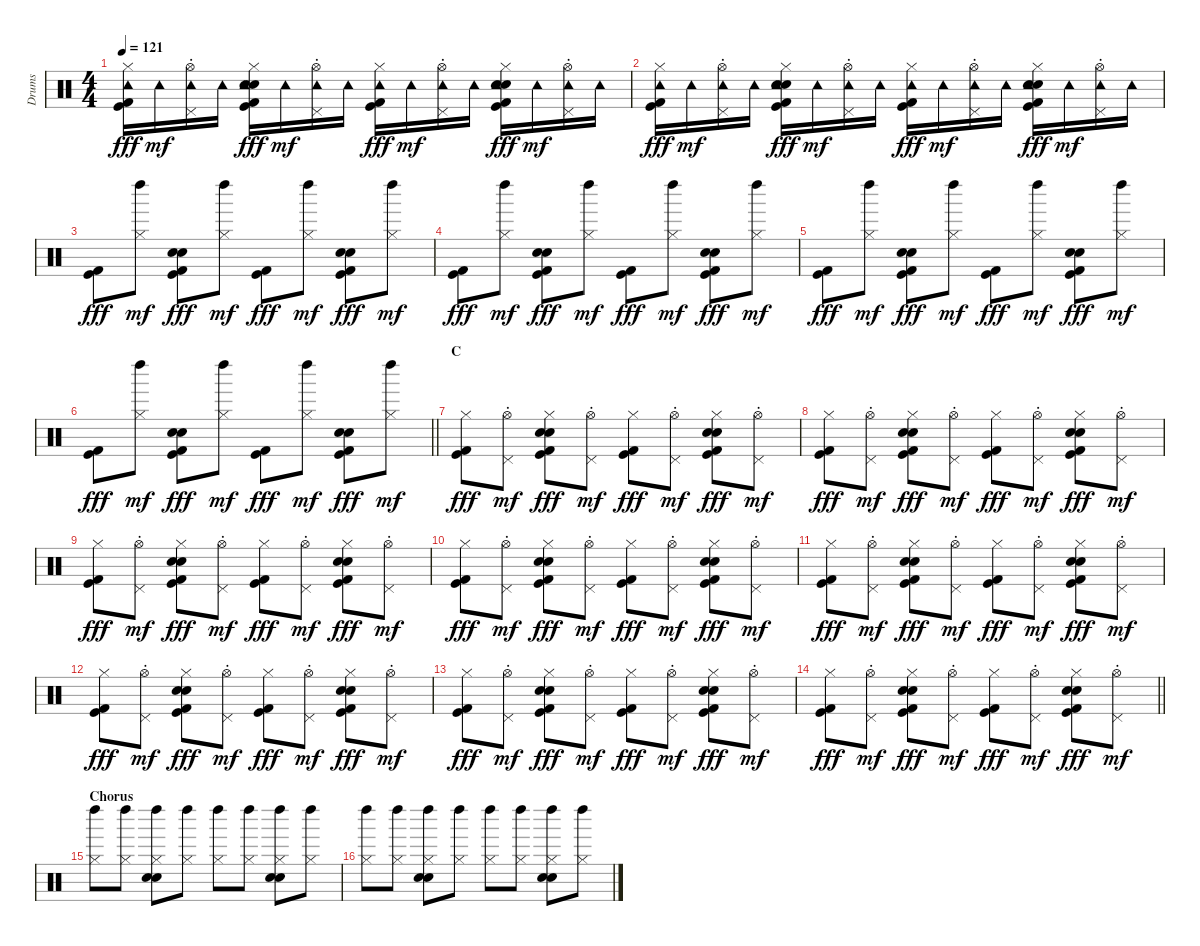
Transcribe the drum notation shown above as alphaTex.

\track ("Drums" "Drums") {instrument percussion}
\staff {score}
\articulation defaults
\ts (4 4)
\tempo 121
\clef neutral
\ks c
("Hi-Hat (closed)" "Tambourine (hit)" "Kick (hit)" "Kick (hit) 2").16{dy fff} "Tambourine (hit)".16{dy mf} ("Pedal Hi-Hat (hit)"{st} "Hi-Hat (open)"{st} "Tambourine (hit)").16 "Tambourine (hit)".16 ("Hand Clap (hit)" "Hi-Hat (closed)" "Tambourine (hit)" "Snare (hit) 2" "Kick (hit)" "Kick (hit) 2").16{dy fff} "Tambourine (hit)".16{dy mf} ("Pedal Hi-Hat (hit)"{st} "Hi-Hat (open)"{st} "Tambourine (hit)").16 "Tambourine (hit)".16 ("Hi-Hat (closed)" "Tambourine (hit)" "Kick (hit)" "Kick (hit) 2").16{dy fff} "Tambourine (hit)".16{dy mf} ("Pedal Hi-Hat (hit)"{st} "Hi-Hat (open)"{st} "Tambourine (hit)").16 "Tambourine (hit)".16 ("Hand Clap (hit)" "Hi-Hat (closed)" "Tambourine (hit)" "Snare (hit) 2" "Kick (hit)" "Kick (hit) 2").16{dy fff} "Tambourine (hit)".16{dy mf} ("Pedal Hi-Hat (hit)"{st} "Hi-Hat (open)"{st} "Tambourine (hit)").16 "Tambourine (hit)".16 |
("Hi-Hat (closed)" "Tambourine (hit)" "Kick (hit)" "Kick (hit) 2").16{dy fff} "Tambourine (hit)".16{dy mf} ("Pedal Hi-Hat (hit)"{st} "Hi-Hat (open)"{st} "Tambourine (hit)").16 "Tambourine (hit)".16 ("Hand Clap (hit)" "Hi-Hat (closed)" "Tambourine (hit)" "Snare (hit) 2" "Kick (hit)" "Kick (hit) 2").16{dy fff} "Tambourine (hit)".16{dy mf} ("Pedal Hi-Hat (hit)"{st} "Hi-Hat (open)"{st} "Tambourine (hit)").16 "Tambourine (hit)".16 ("Hi-Hat (closed)" "Tambourine (hit)" "Kick (hit)" "Kick (hit) 2").16{dy fff} "Tambourine (hit)".16{dy mf} ("Pedal Hi-Hat (hit)"{st} "Hi-Hat (open)"{st} "Tambourine (hit)").16 "Tambourine (hit)".16 ("Hand Clap (hit)" "Hi-Hat (closed)" "Tambourine (hit)" "Snare (hit) 2" "Kick (hit)" "Kick (hit) 2").16{dy fff} "Tambourine (hit)".16{dy mf} ("Pedal Hi-Hat (hit)"{st} "Hi-Hat (open)"{st} "Tambourine (hit)").16 "Tambourine (hit)".16 |
("Kick (hit)" "Kick (hit) 2").8{dy fff} ("Left Maraca (hit)" "Hi-Hat (closed)").8{dy mf} ("Hand Clap (hit)" "Snare (hit) 2" "Kick (hit)" "Kick (hit) 2").8{dy fff} ("Left Maraca (hit)" "Hi-Hat (closed)").8{dy mf} ("Kick (hit)" "Kick (hit) 2").8{dy fff} ("Left Maraca (hit)" "Hi-Hat (closed)").8{dy mf} ("Hand Clap (hit)" "Snare (hit) 2" "Kick (hit)" "Kick (hit) 2").8{dy fff} ("Left Maraca (hit)" "Hi-Hat (closed)").8{dy mf} |
("Kick (hit)" "Kick (hit) 2").8{dy fff} ("Left Maraca (hit)" "Hi-Hat (closed)").8{dy mf} ("Hand Clap (hit)" "Snare (hit) 2" "Kick (hit)" "Kick (hit) 2").8{dy fff} ("Left Maraca (hit)" "Hi-Hat (closed)").8{dy mf} ("Kick (hit)" "Kick (hit) 2").8{dy fff} ("Left Maraca (hit)" "Hi-Hat (closed)").8{dy mf} ("Hand Clap (hit)" "Snare (hit) 2" "Kick (hit)" "Kick (hit) 2").8{dy fff} ("Left Maraca (hit)" "Hi-Hat (closed)").8{dy mf} |
("Kick (hit)" "Kick (hit) 2").8{dy fff} ("Left Maraca (hit)" "Hi-Hat (closed)").8{dy mf} ("Hand Clap (hit)" "Snare (hit) 2" "Kick (hit)" "Kick (hit) 2").8{dy fff} ("Left Maraca (hit)" "Hi-Hat (closed)").8{dy mf} ("Kick (hit)" "Kick (hit) 2").8{dy fff} ("Left Maraca (hit)" "Hi-Hat (closed)").8{dy mf} ("Hand Clap (hit)" "Snare (hit) 2" "Kick (hit)" "Kick (hit) 2").8{dy fff} ("Left Maraca (hit)" "Hi-Hat (closed)").8{dy mf} |
\barLineRight lightlight
("Kick (hit)" "Kick (hit) 2").8{dy fff} ("Left Maraca (hit)" "Hi-Hat (closed)").8{dy mf} ("Hand Clap (hit)" "Snare (hit) 2" "Kick (hit)" "Kick (hit) 2").8{dy fff} ("Left Maraca (hit)" "Hi-Hat (closed)").8{dy mf} ("Kick (hit)" "Kick (hit) 2").8{dy fff} ("Left Maraca (hit)" "Hi-Hat (closed)").8{dy mf} ("Hand Clap (hit)" "Snare (hit) 2" "Kick (hit)" "Kick (hit) 2").8{dy fff} ("Left Maraca (hit)" "Hi-Hat (closed)").8{dy mf} |
\section ("" "C")
("Hi-Hat (closed)" "Kick (hit)" "Kick (hit) 2").8{dy fff} ("Pedal Hi-Hat (hit)"{st} "Hi-Hat (open)"{st}).8{dy mf} ("Hi-Hat (closed)" "Hand Clap (hit)" "Snare (hit) 2" "Kick (hit)" "Kick (hit) 2").8{dy fff} ("Pedal Hi-Hat (hit)"{st} "Hi-Hat (open)"{st}).8{dy mf} ("Hi-Hat (closed)" "Kick (hit)" "Kick (hit) 2").8{dy fff} ("Pedal Hi-Hat (hit)"{st} "Hi-Hat (open)"{st}).8{dy mf} ("Hi-Hat (closed)" "Hand Clap (hit)" "Snare (hit) 2" "Kick (hit)" "Kick (hit) 2").8{dy fff} ("Pedal Hi-Hat (hit)"{st} "Hi-Hat (open)"{st}).8{dy mf} |
("Hi-Hat (closed)" "Kick (hit)" "Kick (hit) 2").8{dy fff} ("Pedal Hi-Hat (hit)"{st} "Hi-Hat (open)"{st}).8{dy mf} ("Hi-Hat (closed)" "Hand Clap (hit)" "Snare (hit) 2" "Kick (hit)" "Kick (hit) 2").8{dy fff} ("Pedal Hi-Hat (hit)"{st} "Hi-Hat (open)"{st}).8{dy mf} ("Hi-Hat (closed)" "Kick (hit)" "Kick (hit) 2").8{dy fff} ("Pedal Hi-Hat (hit)"{st} "Hi-Hat (open)"{st}).8{dy mf} ("Hi-Hat (closed)" "Hand Clap (hit)" "Snare (hit) 2" "Kick (hit)" "Kick (hit) 2").8{dy fff} ("Pedal Hi-Hat (hit)"{st} "Hi-Hat (open)"{st}).8{dy mf} |
("Hi-Hat (closed)" "Kick (hit)" "Kick (hit) 2").8{dy fff} ("Pedal Hi-Hat (hit)"{st} "Hi-Hat (open)"{st}).8{dy mf} ("Hi-Hat (closed)" "Hand Clap (hit)" "Snare (hit) 2" "Kick (hit)" "Kick (hit) 2").8{dy fff} ("Pedal Hi-Hat (hit)"{st} "Hi-Hat (open)"{st}).8{dy mf} ("Hi-Hat (closed)" "Kick (hit)" "Kick (hit) 2").8{dy fff} ("Pedal Hi-Hat (hit)"{st} "Hi-Hat (open)"{st}).8{dy mf} ("Hi-Hat (closed)" "Hand Clap (hit)" "Snare (hit) 2" "Kick (hit)" "Kick (hit) 2").8{dy fff} ("Pedal Hi-Hat (hit)"{st} "Hi-Hat (open)"{st}).8{dy mf} |
("Hi-Hat (closed)" "Kick (hit)" "Kick (hit) 2").8{dy fff} ("Pedal Hi-Hat (hit)"{st} "Hi-Hat (open)"{st}).8{dy mf} ("Hi-Hat (closed)" "Hand Clap (hit)" "Snare (hit) 2" "Kick (hit)" "Kick (hit) 2").8{dy fff} ("Pedal Hi-Hat (hit)"{st} "Hi-Hat (open)"{st}).8{dy mf} ("Hi-Hat (closed)" "Kick (hit)" "Kick (hit) 2").8{dy fff} ("Pedal Hi-Hat (hit)"{st} "Hi-Hat (open)"{st}).8{dy mf} ("Hi-Hat (closed)" "Hand Clap (hit)" "Snare (hit) 2" "Kick (hit)" "Kick (hit) 2").8{dy fff} ("Pedal Hi-Hat (hit)"{st} "Hi-Hat (open)"{st}).8{dy mf} |
("Hi-Hat (closed)" "Kick (hit)" "Kick (hit) 2").8{dy fff} ("Pedal Hi-Hat (hit)"{st} "Hi-Hat (open)"{st}).8{dy mf} ("Hi-Hat (closed)" "Hand Clap (hit)" "Snare (hit) 2" "Kick (hit)" "Kick (hit) 2").8{dy fff} ("Pedal Hi-Hat (hit)"{st} "Hi-Hat (open)"{st}).8{dy mf} ("Hi-Hat (closed)" "Kick (hit)" "Kick (hit) 2").8{dy fff} ("Pedal Hi-Hat (hit)"{st} "Hi-Hat (open)"{st}).8{dy mf} ("Hi-Hat (closed)" "Hand Clap (hit)" "Snare (hit) 2" "Kick (hit)" "Kick (hit) 2").8{dy fff} ("Pedal Hi-Hat (hit)"{st} "Hi-Hat (open)"{st}).8{dy mf} |
("Hi-Hat (closed)" "Kick (hit)" "Kick (hit) 2").8{dy fff} ("Pedal Hi-Hat (hit)"{st} "Hi-Hat (open)"{st}).8{dy mf} ("Hi-Hat (closed)" "Hand Clap (hit)" "Snare (hit) 2" "Kick (hit)" "Kick (hit) 2").8{dy fff} ("Pedal Hi-Hat (hit)"{st} "Hi-Hat (open)"{st}).8{dy mf} ("Hi-Hat (closed)" "Kick (hit)" "Kick (hit) 2").8{dy fff} ("Pedal Hi-Hat (hit)"{st} "Hi-Hat (open)"{st}).8{dy mf} ("Hi-Hat (closed)" "Hand Clap (hit)" "Snare (hit) 2" "Kick (hit)" "Kick (hit) 2").8{dy fff} ("Pedal Hi-Hat (hit)"{st} "Hi-Hat (open)"{st}).8{dy mf} |
("Hi-Hat (closed)" "Kick (hit)" "Kick (hit) 2").8{dy fff} ("Pedal Hi-Hat (hit)"{st} "Hi-Hat (open)"{st}).8{dy mf} ("Hi-Hat (closed)" "Hand Clap (hit)" "Snare (hit) 2" "Kick (hit)" "Kick (hit) 2").8{dy fff} ("Pedal Hi-Hat (hit)"{st} "Hi-Hat (open)"{st}).8{dy mf} ("Hi-Hat (closed)" "Kick (hit)" "Kick (hit) 2").8{dy fff} ("Pedal Hi-Hat (hit)"{st} "Hi-Hat (open)"{st}).8{dy mf} ("Hi-Hat (closed)" "Hand Clap (hit)" "Snare (hit) 2" "Kick (hit)" "Kick (hit) 2").8{dy fff} ("Pedal Hi-Hat (hit)"{st} "Hi-Hat (open)"{st}).8{dy mf} |
\barLineRight lightlight
("Hi-Hat (closed)" "Kick (hit)" "Kick (hit) 2").8{dy fff} ("Pedal Hi-Hat (hit)"{st} "Hi-Hat (open)"{st}).8{dy mf} ("Hi-Hat (closed)" "Hand Clap (hit)" "Snare (hit) 2" "Kick (hit)" "Kick (hit) 2").8{dy fff} ("Pedal Hi-Hat (hit)"{st} "Hi-Hat (open)"{st}).8{dy mf} ("Hi-Hat (closed)" "Kick (hit)" "Kick (hit) 2").8{dy fff} ("Pedal Hi-Hat (hit)"{st} "Hi-Hat (open)"{st}).8{dy mf} ("Hi-Hat (closed)" "Hand Clap (hit)" "Snare (hit) 2" "Kick (hit)" "Kick (hit) 2").8{dy fff} ("Pedal Hi-Hat (hit)"{st} "Hi-Hat (open)"{st}).8{dy mf} |
\section ("" "Chorus")
("Left Maraca (hit)" "Hi-Hat (closed)").8 ("Left Maraca (hit)" "Hi-Hat (closed)").8 ("Left Maraca (hit)" "Hi-Hat (closed)" "Hand Clap (hit)" "Hand Clap (hit)").8 ("Left Maraca (hit)" "Hi-Hat (closed)").8 ("Left Maraca (hit)" "Hi-Hat (closed)").8 ("Left Maraca (hit)" "Hi-Hat (closed)").8 ("Left Maraca (hit)" "Hi-Hat (closed)" "Hand Clap (hit)" "Hand Clap (hit)").8 ("Left Maraca (hit)" "Hi-Hat (closed)").8 |
("Left Maraca (hit)" "Hi-Hat (closed)").8 ("Left Maraca (hit)" "Hi-Hat (closed)").8 ("Left Maraca (hit)" "Hi-Hat (closed)" "Hand Clap (hit)" "Hand Clap (hit)").8 ("Left Maraca (hit)" "Hi-Hat (closed)").8 ("Left Maraca (hit)" "Hi-Hat (closed)").8 ("Left Maraca (hit)" "Hi-Hat (closed)").8 ("Left Maraca (hit)" "Hi-Hat (closed)" "Hand Clap (hit)" "Hand Clap (hit)").8 ("Left Maraca (hit)" "Hi-Hat (closed)").8
